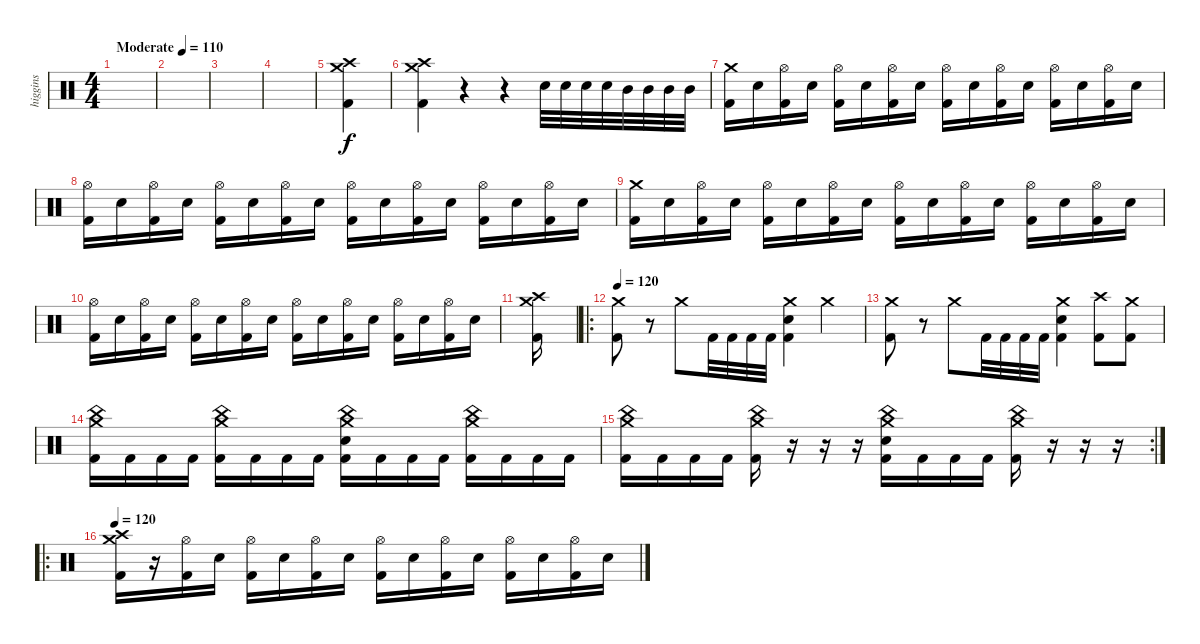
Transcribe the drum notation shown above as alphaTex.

\track ("higgins" "higgins") {instrument percussion}
\staff {score}
\articulation defaults
\ts (4 4)
\tempo (110 "Moderate")
\clef neutral
\ks c
|
|
|
|
("Crash high (hit)" "Crash medium (hit)" "Kick (hit) 2").4 |
("Crash high (hit)" "Crash medium (hit)" "Kick (hit) 2").4 r.4 r.4 "Snare (hit) 2".32 "Snare (hit) 2".32 "Snare (hit) 2".32 "Snare (hit) 2".32 "Mid Tom (hit)".32 "Mid Tom (hit)".32 "Mid Tom (hit)".32 "Mid Tom (hit)".32 |
("Crash medium (hit)" "Kick (hit) 2").16 "Snare (hit) 2".16 ("Hi-Hat (open)" "Kick (hit) 2").16 "Snare (hit) 2".16 ("Hi-Hat (open)" "Kick (hit) 2").16 "Snare (hit) 2".16 ("Hi-Hat (open)" "Kick (hit) 2").16 "Snare (hit) 2".16 ("Hi-Hat (open)" "Kick (hit) 2").16 "Snare (hit) 2".16 ("Hi-Hat (open)" "Kick (hit) 2").16 "Snare (hit) 2".16 ("Hi-Hat (open)" "Kick (hit) 2").16 "Snare (hit) 2".16 ("Hi-Hat (open)" "Kick (hit) 2").16 "Snare (hit) 2".16 |
("Hi-Hat (open)" "Kick (hit) 2").16 "Snare (hit) 2".16 ("Hi-Hat (open)" "Kick (hit) 2").16 "Snare (hit) 2".16 ("Hi-Hat (open)" "Kick (hit) 2").16 "Snare (hit) 2".16 ("Hi-Hat (open)" "Kick (hit) 2").16 "Snare (hit) 2".16 ("Hi-Hat (open)" "Kick (hit) 2").16 "Snare (hit) 2".16 ("Hi-Hat (open)" "Kick (hit) 2").16 "Snare (hit) 2".16 ("Hi-Hat (open)" "Kick (hit) 2").16 "Snare (hit) 2".16 ("Hi-Hat (open)" "Kick (hit) 2").16 "Snare (hit) 2".16 |
("Crash medium (hit)" "Kick (hit) 2").16 "Snare (hit) 2".16 ("Hi-Hat (open)" "Kick (hit) 2").16 "Snare (hit) 2".16 ("Hi-Hat (open)" "Kick (hit) 2").16 "Snare (hit) 2".16 ("Hi-Hat (open)" "Kick (hit) 2").16 "Snare (hit) 2".16 ("Hi-Hat (open)" "Kick (hit) 2").16 "Snare (hit) 2".16 ("Hi-Hat (open)" "Kick (hit) 2").16 "Snare (hit) 2".16 ("Hi-Hat (open)" "Kick (hit) 2").16 "Snare (hit) 2".16 ("Hi-Hat (open)" "Kick (hit) 2").16 "Snare (hit) 2".16 |
("Hi-Hat (open)" "Kick (hit) 2").16 "Snare (hit) 2".16 ("Hi-Hat (open)" "Kick (hit) 2").16 "Snare (hit) 2".16 ("Hi-Hat (open)" "Kick (hit) 2").16 "Snare (hit) 2".16 ("Hi-Hat (open)" "Kick (hit) 2").16 "Snare (hit) 2".16 ("Hi-Hat (open)" "Kick (hit) 2").16 "Snare (hit) 2".16 ("Hi-Hat (open)" "Kick (hit) 2").16 "Snare (hit) 2".16 ("Hi-Hat (open)" "Kick (hit) 2").16 "Snare (hit) 2".16 ("Hi-Hat (open)" "Kick (hit) 2").16 "Snare (hit) 2".16 |
("Crash high (hit)" "Crash medium (hit)" "Kick (hit) 2").16 |
\ro
\tempo 120
("Crash medium (hit)" "Kick (hit) 2").8 r.8 "Crash medium (hit)".8 "Kick (hit) 2".32 "Kick (hit) 2".32 "Kick (hit) 2".32 "Kick (hit) 2".32 ("Crash medium (hit)" "Snare (hit) 2" "Kick (hit) 2").4 "Crash medium (hit)".4 |
("Crash medium (hit)" "Kick (hit) 2").8 r.8 "Crash medium (hit)".8 "Kick (hit) 2".32 "Kick (hit) 2".32 "Kick (hit) 2".32 "Kick (hit) 2".32 ("Crash medium (hit)" "Snare (hit) 2" "Kick (hit) 2").4 ("Crash high (hit)" "Kick (hit) 2").8 ("Crash medium (hit)" "Kick (hit) 2").8 |
("Crash medium (hit)" "China (hit)" "Kick (hit) 2").16 "Kick (hit) 2".16 "Kick (hit) 2".16 "Kick (hit) 2".16 ("Crash medium (hit)" "China (hit)" "Kick (hit) 2").16 "Kick (hit) 2".16 "Kick (hit) 2".16 "Kick (hit) 2".16 ("Snare (hit) 2" "Crash medium (hit)" "China (hit)" "Kick (hit) 2").16 "Kick (hit) 2".16 "Kick (hit) 2".16 "Kick (hit) 2".16 ("Crash medium (hit)" "China (hit)" "Kick (hit) 2").16 "Kick (hit) 2".16 "Kick (hit) 2".16 "Kick (hit) 2".16 |
\rc 2
("Crash medium (hit)" "China (hit)" "Kick (hit) 2").16 "Kick (hit) 2".16 "Kick (hit) 2".16 "Kick (hit) 2".16 ("China (hit)" "Crash medium (hit)" "Kick (hit) 2").16 r.16 r.16 r.16 ("Crash medium (hit)" "China (hit)" "Snare (hit) 2" "Kick (hit) 2").16 "Kick (hit) 2".16 "Kick (hit) 2".16 "Kick (hit) 2".16 ("Crash medium (hit)" "China (hit)" "Kick (hit) 2").16 r.16 r.16 r.16 |
\ro
\tempo 120
("Crash high (hit)" "Crash medium (hit)" "Kick (hit) 2").16 r.16 ("Hi-Hat (open)" "Kick (hit) 2").16 "Snare (hit) 2".16 ("Hi-Hat (open)" "Kick (hit) 2").16 "Snare (hit) 2".16 ("Hi-Hat (open)" "Kick (hit) 2").16 "Snare (hit) 2".16 ("Hi-Hat (open)" "Kick (hit) 2").16 "Snare (hit) 2".16 ("Hi-Hat (open)" "Kick (hit) 2").16 "Snare (hit) 2".16 ("Hi-Hat (open)" "Kick (hit) 2").16 "Snare (hit) 2".16 ("Hi-Hat (open)" "Kick (hit) 2").16 "Snare (hit) 2".16
